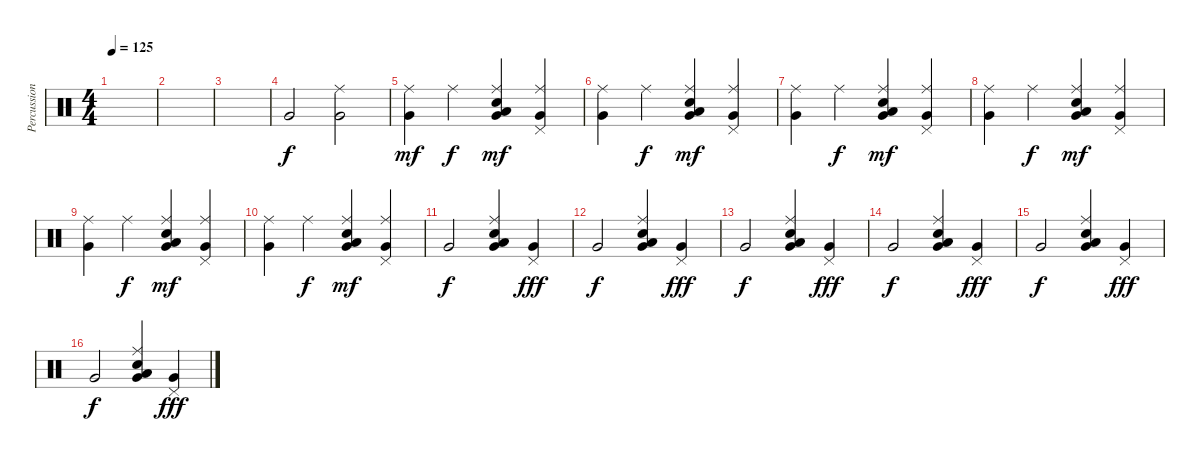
\track ("Percussion" "Percussion") {instrument percussion}
\staff {score}
\articulation defaults
\ts (4 4)
\tempo 125
\clef neutral
\ks c
|
|
|
"Very Low Tom (hit)".2{dy f} ("Very Low Tom (hit)" "Ride (middle)").2 |
("Very Low Tom (hit)" "Ride (middle)").4{dy mf} "Ride (middle)".4{dy f} ("Very Low Tom (hit)" "Low Floor Tom (hit)" "Ride (middle)" "Snare (hit) 2").4{dy mf} ("Very Low Tom (hit)" "Pedal Hi-Hat (hit)" "Ride (middle)").4 |
("Very Low Tom (hit)" "Ride (middle)").4 "Ride (middle)".4{dy f} ("Very Low Tom (hit)" "Low Floor Tom (hit)" "Ride (middle)" "Snare (hit) 2").4{dy mf} ("Very Low Tom (hit)" "Pedal Hi-Hat (hit)" "Ride (middle)").4 |
("Very Low Tom (hit)" "Ride (middle)").4 "Ride (middle)".4{dy f} ("Very Low Tom (hit)" "Low Floor Tom (hit)" "Ride (middle)" "Snare (hit) 2").4{dy mf} ("Very Low Tom (hit)" "Pedal Hi-Hat (hit)" "Ride (middle)").4 |
("Very Low Tom (hit)" "Ride (middle)").4 "Ride (middle)".4{dy f} ("Very Low Tom (hit)" "Low Floor Tom (hit)" "Ride (middle)" "Snare (hit) 2").4{dy mf} ("Very Low Tom (hit)" "Pedal Hi-Hat (hit)" "Ride (middle)").4 |
("Very Low Tom (hit)" "Ride (middle)").4 "Ride (middle)".4{dy f} ("Very Low Tom (hit)" "Low Floor Tom (hit)" "Ride (middle)" "Snare (hit) 2").4{dy mf} ("Very Low Tom (hit)" "Pedal Hi-Hat (hit)" "Ride (middle)").4 |
("Very Low Tom (hit)" "Ride (middle)").4 "Ride (middle)".4{dy f} ("Very Low Tom (hit)" "Low Floor Tom (hit)" "Ride (middle)" "Snare (hit) 2").4{dy mf} ("Very Low Tom (hit)" "Pedal Hi-Hat (hit)" "Ride (middle)").4 |
"Very Low Tom (hit)".2{dy f} ("Very Low Tom (hit)" "Low Floor Tom (hit)" "Ride (middle)" "Snare (hit) 2").4 ("Very Low Tom (hit)" "Pedal Hi-Hat (hit)").4{dy fff} |
"Very Low Tom (hit)".2{dy f} ("Very Low Tom (hit)" "Low Floor Tom (hit)" "Ride (middle)" "Snare (hit) 2").4 ("Very Low Tom (hit)" "Pedal Hi-Hat (hit)").4{dy fff} |
"Very Low Tom (hit)".2{dy f} ("Very Low Tom (hit)" "Low Floor Tom (hit)" "Ride (middle)" "Snare (hit) 2").4 ("Very Low Tom (hit)" "Pedal Hi-Hat (hit)").4{dy fff} |
"Very Low Tom (hit)".2{dy f} ("Very Low Tom (hit)" "Low Floor Tom (hit)" "Ride (middle)" "Snare (hit) 2").4 ("Very Low Tom (hit)" "Pedal Hi-Hat (hit)").4{dy fff} |
"Very Low Tom (hit)".2{dy f} ("Very Low Tom (hit)" "Low Floor Tom (hit)" "Ride (middle)" "Snare (hit) 2").4 ("Very Low Tom (hit)" "Pedal Hi-Hat (hit)").4{dy fff} |
"Very Low Tom (hit)".2{dy f} ("Very Low Tom (hit)" "Low Floor Tom (hit)" "Ride (middle)" "Snare (hit) 2").4 ("Very Low Tom (hit)" "Pedal Hi-Hat (hit)").4{dy fff}
